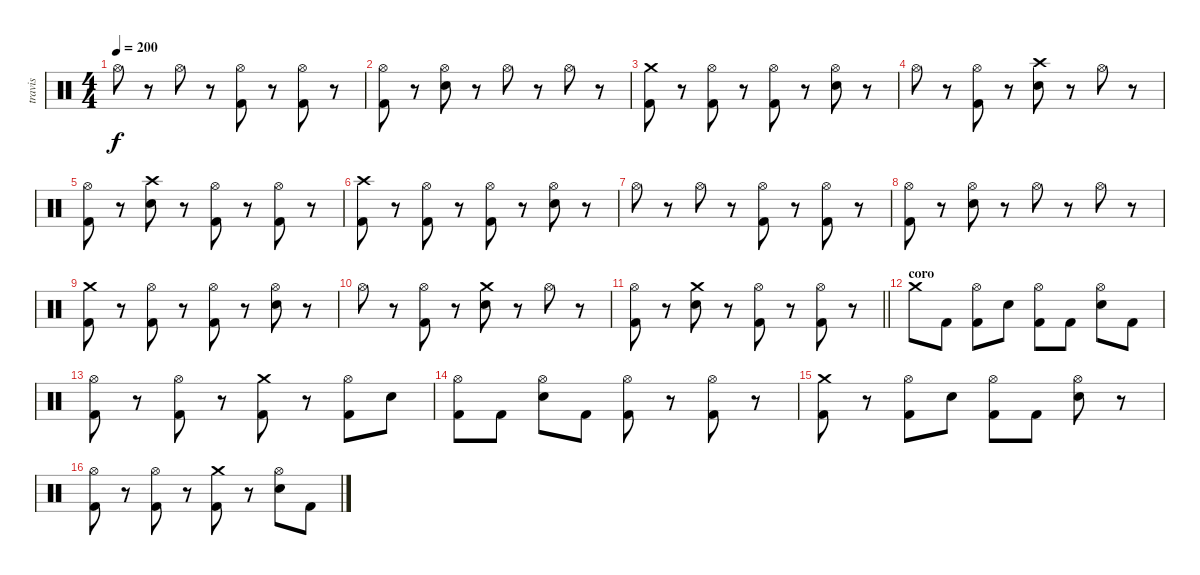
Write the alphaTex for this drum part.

\track ("travis" "travis") {instrument percussion}
\staff {score}
\articulation defaults
\ts (4 4)
\tempo 200
\clef neutral
\ks c "Hi-Hat (open)".8{dy f}
r.8 "Hi-Hat (open)".8 r.8 ("Hi-Hat (open)" "Kick (hit) 2").8 r.8 ("Hi-Hat (open)" "Kick (hit) 2").8 r.8 |
("Hi-Hat (open)" "Kick (hit) 2").8 r.8 ("Hi-Hat (open)" "Electric Snare (hit)").8 r.8 "Hi-Hat (open)".8 r.8 "Hi-Hat (open)".8 r.8 |
("Crash medium (hit)" "Kick (hit) 2").8 r.8 ("Hi-Hat (open)" "Kick (hit) 2").8 r.8 ("Hi-Hat (open)" "Kick (hit) 2").8 r.8 ("Hi-Hat (open)" "Electric Snare (hit)").8 r.8 |
"Hi-Hat (open)".8 r.8 ("Hi-Hat (open)" "Kick (hit) 2").8 r.8 ("Crash high (hit)" "Electric Snare (hit)").8 r.8 "Hi-Hat (open)".8 r.8 |
("Hi-Hat (open)" "Kick (hit) 2").8 r.8 ("Crash high (hit)" "Electric Snare (hit)").8 r.8 ("Hi-Hat (open)" "Kick (hit) 2").8 r.8 ("Hi-Hat (open)" "Kick (hit) 2").8 r.8 |
("Crash high (hit)" "Kick (hit) 2").8 r.8 ("Hi-Hat (open)" "Kick (hit) 2").8 r.8 ("Hi-Hat (open)" "Kick (hit) 2").8 r.8 ("Hi-Hat (open)" "Electric Snare (hit)").8 r.8 |
"Hi-Hat (open)".8 r.8 "Hi-Hat (open)".8 r.8 ("Hi-Hat (open)" "Kick (hit) 2").8 r.8 ("Hi-Hat (open)" "Kick (hit) 2").8 r.8 |
("Hi-Hat (open)" "Kick (hit) 2").8 r.8 ("Hi-Hat (open)" "Electric Snare (hit)").8 r.8 "Hi-Hat (open)".8 r.8 "Hi-Hat (open)".8 r.8 |
("Crash medium (hit)" "Kick (hit) 2").8 r.8 ("Hi-Hat (open)" "Kick (hit) 2").8 r.8 ("Hi-Hat (open)" "Kick (hit) 2").8 r.8 ("Hi-Hat (open)" "Electric Snare (hit)").8 r.8 |
"Hi-Hat (open)".8 r.8 ("Hi-Hat (open)" "Kick (hit) 2").8 r.8 ("Crash medium (hit)" "Electric Snare (hit)").8 r.8 "Hi-Hat (open)".8 r.8 |
\barLineRight lightlight
("Hi-Hat (open)" "Kick (hit) 2").8 r.8 ("Crash medium (hit)" "Electric Snare (hit)").8 r.8 ("Hi-Hat (open)" "Kick (hit) 2").8 r.8 ("Hi-Hat (open)" "Kick (hit) 2").8 r.8 |
\section ("" "coro")
"Crash medium (hit)".8 "Kick (hit) 2".8 ("Hi-Hat (open)" "Kick (hit) 2").8 "Electric Snare (hit)".8 ("Hi-Hat (open)" "Kick (hit) 2").8 "Kick (hit) 2".8 ("Hi-Hat (open)" "Electric Snare (hit)").8 "Kick (hit) 2".8 |
("Hi-Hat (open)" "Kick (hit) 2").8 r.8 ("Hi-Hat (open)" "Kick (hit) 2").8 r.8 ("Crash medium (hit)" "Kick (hit) 2").8 r.8 ("Hi-Hat (open)" "Kick (hit) 2").8 "Electric Snare (hit)".8 |
("Hi-Hat (open)" "Kick (hit) 2").8 "Kick (hit) 2".8 ("Hi-Hat (open)" "Electric Snare (hit)").8 "Kick (hit) 2".8 ("Hi-Hat (open)" "Kick (hit) 2").8 r.8 ("Hi-Hat (open)" "Kick (hit) 2").8 r.8 |
("Crash medium (hit)" "Kick (hit) 2").8 r.8 ("Hi-Hat (open)" "Kick (hit) 2").8 "Electric Snare (hit)".8 ("Hi-Hat (open)" "Kick (hit) 2").8 "Kick (hit) 2".8 ("Hi-Hat (open)" "Electric Snare (hit)").8 r.8 |
("Hi-Hat (open)" "Kick (hit) 2").8 r.8 ("Hi-Hat (open)" "Kick (hit) 2").8 r.8 ("Crash medium (hit)" "Kick (hit) 2").8 r.8 ("Hi-Hat (open)" "Electric Snare (hit)").8 "Kick (hit) 2".8
